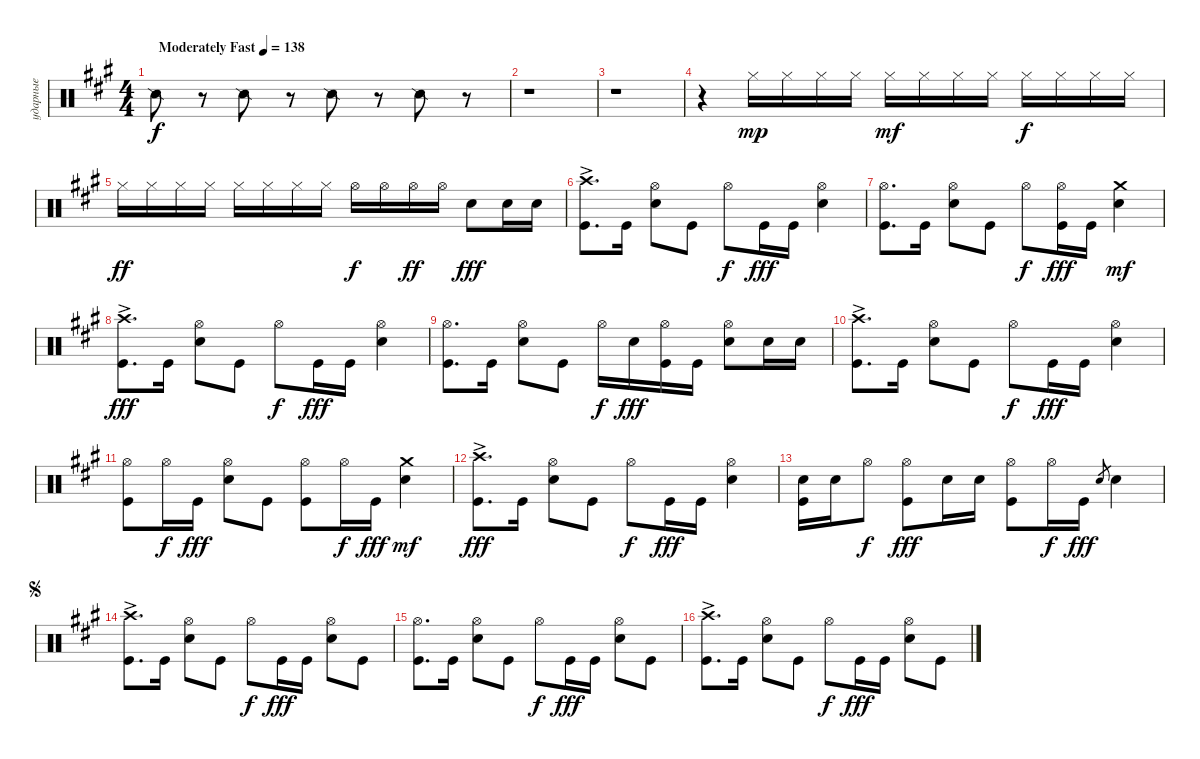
\track ("ударные" "ударные") {instrument percussion}
\staff {score}
\articulation defaults
\ts (4 4)
\tempo (138 "Moderately Fast")
\clef neutral
\ks f#minor "Snare (side stick) 2".8{dy f}
r.8 "Snare (side stick) 2".8 r.8 "Snare (side stick) 2".8 r.8 "Snare (side stick) 2".8 r.8 |
r.1 |
r.1 |
r.4 "Hi-Hat (closed)".16{dy mp} "Hi-Hat (closed)".16 "Hi-Hat (closed)".16 "Hi-Hat (closed)".16 "Hi-Hat (closed)".16{dy mf} "Hi-Hat (closed)".16 "Hi-Hat (closed)".16 "Hi-Hat (closed)".16 "Hi-Hat (closed)".16{dy f} "Hi-Hat (closed)".16 "Hi-Hat (closed)".16 "Hi-Hat (closed)".16 |
"Hi-Hat (closed)".16{dy ff} "Hi-Hat (closed)".16 "Hi-Hat (closed)".16 "Hi-Hat (closed)".16 "Hi-Hat (closed)".16 "Hi-Hat (closed)".16 "Hi-Hat (closed)".16 "Hi-Hat (closed)".16 "Hi-Hat (open)".16{dy f} "Hi-Hat (open)".16 "Hi-Hat (open)".16{dy ff} "Hi-Hat (open)".16 "Snare (hit) 2".8{dy fff} "Snare (hit) 2".16 "Snare (hit) 2".16 |
("Kick (hit)" "Crash high (hit)"{ac}).8{d} "Kick (hit)".16 ("Snare (hit) 2" "Hi-Hat (open)").8 "Kick (hit)".8 "Hi-Hat (open)".8{dy f} "Kick (hit)".16{dy fff} "Kick (hit)".16 ("Snare (hit) 2" "Hi-Hat (open)").4 |
("Kick (hit)" "Hi-Hat (open)").8{d} "Kick (hit)".16 ("Snare (hit) 2" "Hi-Hat (open)").8 "Kick (hit)".8 "Hi-Hat (open)".8{dy f} ("Kick (hit)" "Hi-Hat (open)").16{dy fff} "Kick (hit)".16 ("Snare (hit) 2" "Crash medium (hit)").4{dy mf} |
("Kick (hit)" "Crash high (hit)"{ac}).8{d dy fff} "Kick (hit)".16 ("Snare (hit) 2" "Hi-Hat (open)").8 "Kick (hit)".8 "Hi-Hat (open)".8{dy f} "Kick (hit)".16{dy fff} "Kick (hit)".16 ("Snare (hit) 2" "Hi-Hat (open)").4 |
("Kick (hit)" "Hi-Hat (open)").8{d} "Kick (hit)".16 ("Snare (hit) 2" "Hi-Hat (open)").8 "Kick (hit)".8 "Hi-Hat (open)".16{dy f} "Snare (hit) 2".16{dy fff} ("Hi-Hat (open)" "Kick (hit)").16 "Kick (hit)".16 ("Snare (hit) 2" "Hi-Hat (open)").8 "Snare (hit) 2".16 "Snare (hit) 2".16 |
("Kick (hit)" "Crash high (hit)"{ac}).8{d} "Kick (hit)".16 ("Snare (hit) 2" "Hi-Hat (open)").8 "Kick (hit)".8 "Hi-Hat (open)".8{dy f} "Kick (hit)".16{dy fff} "Kick (hit)".16 ("Snare (hit) 2" "Hi-Hat (open)").4 |
("Hi-Hat (open)" "Kick (hit)").8 "Hi-Hat (open)".16{dy f} "Kick (hit)".16{dy fff} ("Snare (hit) 2" "Hi-Hat (open)").8 "Kick (hit)".8 ("Hi-Hat (open)" "Kick (hit)").8 "Hi-Hat (open)".16{dy f} "Kick (hit)".16{dy fff} ("Snare (hit) 2" "Crash medium (hit)").4{dy mf} |
("Kick (hit)" "Crash high (hit)"{ac}).8{d dy fff} "Kick (hit)".16 ("Snare (hit) 2" "Hi-Hat (open)").8 "Kick (hit)".8 "Hi-Hat (open)".8{dy f} "Kick (hit)".16{dy fff} "Kick (hit)".16 ("Snare (hit) 2" "Hi-Hat (open)").4 |
("Snare (hit) 2" "Kick (hit)").16 "Snare (hit) 2".16 "Hi-Hat (open)".8{dy f} ("Kick (hit)" "Hi-Hat (open)").8{dy fff} "Snare (hit) 2".16 "Snare (hit) 2".16 ("Kick (hit)" "Hi-Hat (open)").8 "Hi-Hat (open)".16{dy f} "Kick (hit)".16{dy fff} "Snare (hit) 2".8{gr} "Snare (hit) 2".4 |
\jump segno
("Kick (hit)" "Crash high (hit)"{ac}).8{d} "Kick (hit)".16 ("Snare (hit) 2" "Hi-Hat (open)").8 "Kick (hit)".8 "Hi-Hat (open)".8{dy f} "Kick (hit)".16{dy fff} "Kick (hit)".16 ("Snare (hit) 2" "Hi-Hat (open)").8 "Kick (hit)".8 |
("Kick (hit)" "Hi-Hat (open)").8{d} "Kick (hit)".16 ("Snare (hit) 2" "Hi-Hat (open)").8 "Kick (hit)".8 "Hi-Hat (open)".8{dy f} "Kick (hit)".16{dy fff} "Kick (hit)".16 ("Snare (hit) 2" "Hi-Hat (open)").8 "Kick (hit)".8 |
("Kick (hit)" "Crash high (hit)"{ac}).8{d} "Kick (hit)".16 ("Snare (hit) 2" "Hi-Hat (open)").8 "Kick (hit)".8 "Hi-Hat (open)".8{dy f} "Kick (hit)".16{dy fff} "Kick (hit)".16 ("Snare (hit) 2" "Hi-Hat (open)").8 "Kick (hit)".8
